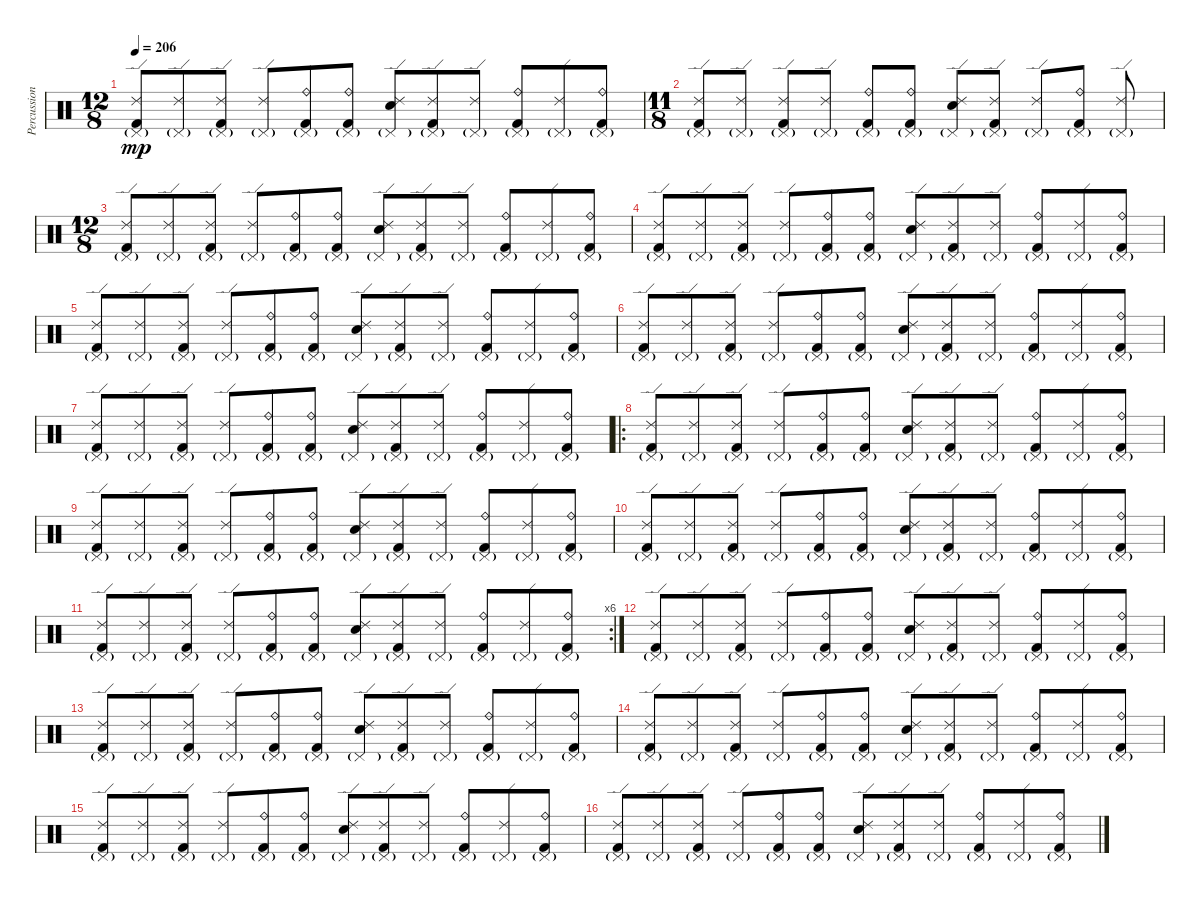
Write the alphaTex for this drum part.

\track ("Percussion" "Percussion") {instrument percussion}
\staff {score}
\articulation defaults
\ts (12 8)
\tempo 206
\clef neutral
\ks c
("Ride (edge) 2" "Pedal Hi-Hat (hit)"{g} "Kick (hit) 2").8{dy mp} ("Ride (edge) 2" "Pedal Hi-Hat (hit)"{g}).8 ("Ride (edge) 2" "Pedal Hi-Hat (hit)"{g} "Kick (hit) 2").8 ("Ride (edge) 2" "Pedal Hi-Hat (hit)"{g}).8 ("Ride (bell)" "Pedal Hi-Hat (hit)"{g} "Kick (hit) 2").8 ("Ride (bell)" "Pedal Hi-Hat (hit)"{g} "Kick (hit) 2").8 ("Ride (edge) 2" "Pedal Hi-Hat (hit)"{g} "Electric Snare (hit)").8 ("Ride (edge) 2" "Pedal Hi-Hat (hit)"{g} "Kick (hit) 2").8 ("Ride (edge) 2" "Pedal Hi-Hat (hit)"{g}).8 ("Ride (bell)" "Pedal Hi-Hat (hit)"{g} "Kick (hit) 2").8 ("Ride (edge) 2" "Pedal Hi-Hat (hit)"{g}).8 ("Ride (bell)" "Pedal Hi-Hat (hit)"{g} "Kick (hit) 2").8 |
\ts (11 8)
("Ride (edge) 2" "Pedal Hi-Hat (hit)"{g} "Kick (hit) 2").8 ("Ride (edge) 2" "Pedal Hi-Hat (hit)"{g}).8 ("Ride (edge) 2" "Pedal Hi-Hat (hit)"{g} "Kick (hit) 2").8 ("Ride (edge) 2" "Pedal Hi-Hat (hit)"{g}).8 ("Ride (bell)" "Pedal Hi-Hat (hit)"{g} "Kick (hit) 2").8 ("Ride (bell)" "Pedal Hi-Hat (hit)"{g} "Kick (hit) 2").8 ("Ride (edge) 2" "Pedal Hi-Hat (hit)"{g} "Electric Snare (hit)").8 ("Ride (edge) 2" "Pedal Hi-Hat (hit)"{g} "Kick (hit) 2").8 ("Ride (edge) 2" "Pedal Hi-Hat (hit)"{g}).8 ("Ride (bell)" "Pedal Hi-Hat (hit)"{g} "Kick (hit) 2").8 ("Ride (edge) 2" "Pedal Hi-Hat (hit)"{g}).8 |
\ts (12 8)
("Ride (edge) 2" "Pedal Hi-Hat (hit)"{g} "Kick (hit) 2").8 ("Ride (edge) 2" "Pedal Hi-Hat (hit)"{g}).8 ("Ride (edge) 2" "Pedal Hi-Hat (hit)"{g} "Kick (hit) 2").8 ("Ride (edge) 2" "Pedal Hi-Hat (hit)"{g}).8 ("Ride (bell)" "Pedal Hi-Hat (hit)"{g} "Kick (hit) 2").8 ("Ride (bell)" "Pedal Hi-Hat (hit)"{g} "Kick (hit) 2").8 ("Ride (edge) 2" "Pedal Hi-Hat (hit)"{g} "Electric Snare (hit)").8 ("Ride (edge) 2" "Pedal Hi-Hat (hit)"{g} "Kick (hit) 2").8 ("Ride (edge) 2" "Pedal Hi-Hat (hit)"{g}).8 ("Ride (bell)" "Pedal Hi-Hat (hit)"{g} "Kick (hit) 2").8 ("Ride (edge) 2" "Pedal Hi-Hat (hit)"{g}).8 ("Ride (bell)" "Pedal Hi-Hat (hit)"{g} "Kick (hit) 2").8 |
("Ride (edge) 2" "Pedal Hi-Hat (hit)"{g} "Kick (hit) 2").8 ("Ride (edge) 2" "Pedal Hi-Hat (hit)"{g}).8 ("Ride (edge) 2" "Pedal Hi-Hat (hit)"{g} "Kick (hit) 2").8 ("Ride (edge) 2" "Pedal Hi-Hat (hit)"{g}).8 ("Ride (bell)" "Pedal Hi-Hat (hit)"{g} "Kick (hit) 2").8 ("Ride (bell)" "Pedal Hi-Hat (hit)"{g} "Kick (hit) 2").8 ("Ride (edge) 2" "Pedal Hi-Hat (hit)"{g} "Electric Snare (hit)").8 ("Ride (edge) 2" "Pedal Hi-Hat (hit)"{g} "Kick (hit) 2").8 ("Ride (edge) 2" "Pedal Hi-Hat (hit)"{g}).8 ("Ride (bell)" "Pedal Hi-Hat (hit)"{g} "Kick (hit) 2").8 ("Ride (edge) 2" "Pedal Hi-Hat (hit)"{g}).8 ("Ride (bell)" "Pedal Hi-Hat (hit)"{g} "Kick (hit) 2").8 |
("Ride (edge) 2" "Pedal Hi-Hat (hit)"{g} "Kick (hit) 2").8 ("Ride (edge) 2" "Pedal Hi-Hat (hit)"{g}).8 ("Ride (edge) 2" "Pedal Hi-Hat (hit)"{g} "Kick (hit) 2").8 ("Ride (edge) 2" "Pedal Hi-Hat (hit)"{g}).8 ("Ride (bell)" "Pedal Hi-Hat (hit)"{g} "Kick (hit) 2").8 ("Ride (bell)" "Pedal Hi-Hat (hit)"{g} "Kick (hit) 2").8 ("Ride (edge) 2" "Pedal Hi-Hat (hit)"{g} "Electric Snare (hit)").8 ("Ride (edge) 2" "Pedal Hi-Hat (hit)"{g} "Kick (hit) 2").8 ("Ride (edge) 2" "Pedal Hi-Hat (hit)"{g}).8 ("Ride (bell)" "Pedal Hi-Hat (hit)"{g} "Kick (hit) 2").8 ("Ride (edge) 2" "Pedal Hi-Hat (hit)"{g}).8 ("Ride (bell)" "Pedal Hi-Hat (hit)"{g} "Kick (hit) 2").8 |
("Ride (edge) 2" "Pedal Hi-Hat (hit)"{g} "Kick (hit) 2").8 ("Ride (edge) 2" "Pedal Hi-Hat (hit)"{g}).8 ("Ride (edge) 2" "Pedal Hi-Hat (hit)"{g} "Kick (hit) 2").8 ("Ride (edge) 2" "Pedal Hi-Hat (hit)"{g}).8 ("Ride (bell)" "Pedal Hi-Hat (hit)"{g} "Kick (hit) 2").8 ("Ride (bell)" "Pedal Hi-Hat (hit)"{g} "Kick (hit) 2").8 ("Ride (edge) 2" "Pedal Hi-Hat (hit)"{g} "Electric Snare (hit)").8 ("Ride (edge) 2" "Pedal Hi-Hat (hit)"{g} "Kick (hit) 2").8 ("Ride (edge) 2" "Pedal Hi-Hat (hit)"{g}).8 ("Ride (bell)" "Pedal Hi-Hat (hit)"{g} "Kick (hit) 2").8 ("Ride (edge) 2" "Pedal Hi-Hat (hit)"{g}).8 ("Ride (bell)" "Pedal Hi-Hat (hit)"{g} "Kick (hit) 2").8 |
("Ride (edge) 2" "Pedal Hi-Hat (hit)"{g} "Kick (hit) 2").8 ("Ride (edge) 2" "Pedal Hi-Hat (hit)"{g}).8 ("Ride (edge) 2" "Pedal Hi-Hat (hit)"{g} "Kick (hit) 2").8 ("Ride (edge) 2" "Pedal Hi-Hat (hit)"{g}).8 ("Ride (bell)" "Pedal Hi-Hat (hit)"{g} "Kick (hit) 2").8 ("Ride (bell)" "Pedal Hi-Hat (hit)"{g} "Kick (hit) 2").8 ("Ride (edge) 2" "Pedal Hi-Hat (hit)"{g} "Electric Snare (hit)").8 ("Ride (edge) 2" "Pedal Hi-Hat (hit)"{g} "Kick (hit) 2").8 ("Ride (edge) 2" "Pedal Hi-Hat (hit)"{g}).8 ("Ride (bell)" "Pedal Hi-Hat (hit)"{g} "Kick (hit) 2").8 ("Ride (edge) 2" "Pedal Hi-Hat (hit)"{g}).8 ("Ride (bell)" "Pedal Hi-Hat (hit)"{g} "Kick (hit) 2").8 |
\ro
("Ride (edge) 2" "Pedal Hi-Hat (hit)"{g} "Kick (hit) 2").8 ("Ride (edge) 2" "Pedal Hi-Hat (hit)"{g}).8 ("Ride (edge) 2" "Pedal Hi-Hat (hit)"{g} "Kick (hit) 2").8 ("Ride (edge) 2" "Pedal Hi-Hat (hit)"{g}).8 ("Ride (bell)" "Pedal Hi-Hat (hit)"{g} "Kick (hit) 2").8 ("Ride (bell)" "Pedal Hi-Hat (hit)"{g} "Kick (hit) 2").8 ("Ride (edge) 2" "Pedal Hi-Hat (hit)"{g} "Electric Snare (hit)").8 ("Ride (edge) 2" "Pedal Hi-Hat (hit)"{g} "Kick (hit) 2").8 ("Ride (edge) 2" "Pedal Hi-Hat (hit)"{g}).8 ("Ride (bell)" "Pedal Hi-Hat (hit)"{g} "Kick (hit) 2").8 ("Ride (edge) 2" "Pedal Hi-Hat (hit)"{g}).8 ("Ride (bell)" "Pedal Hi-Hat (hit)"{g} "Kick (hit) 2").8 |
("Ride (edge) 2" "Pedal Hi-Hat (hit)"{g} "Kick (hit) 2").8 ("Ride (edge) 2" "Pedal Hi-Hat (hit)"{g}).8 ("Ride (edge) 2" "Pedal Hi-Hat (hit)"{g} "Kick (hit) 2").8 ("Ride (edge) 2" "Pedal Hi-Hat (hit)"{g}).8 ("Ride (bell)" "Pedal Hi-Hat (hit)"{g} "Kick (hit) 2").8 ("Ride (bell)" "Pedal Hi-Hat (hit)"{g} "Kick (hit) 2").8 ("Ride (edge) 2" "Pedal Hi-Hat (hit)"{g} "Electric Snare (hit)").8 ("Ride (edge) 2" "Pedal Hi-Hat (hit)"{g} "Kick (hit) 2").8 ("Ride (edge) 2" "Pedal Hi-Hat (hit)"{g}).8 ("Ride (bell)" "Pedal Hi-Hat (hit)"{g} "Kick (hit) 2").8 ("Ride (edge) 2" "Pedal Hi-Hat (hit)"{g}).8 ("Ride (bell)" "Pedal Hi-Hat (hit)"{g} "Kick (hit) 2").8 |
("Ride (edge) 2" "Pedal Hi-Hat (hit)"{g} "Kick (hit) 2").8 ("Ride (edge) 2" "Pedal Hi-Hat (hit)"{g}).8 ("Ride (edge) 2" "Pedal Hi-Hat (hit)"{g} "Kick (hit) 2").8 ("Ride (edge) 2" "Pedal Hi-Hat (hit)"{g}).8 ("Ride (bell)" "Pedal Hi-Hat (hit)"{g} "Kick (hit) 2").8 ("Ride (bell)" "Pedal Hi-Hat (hit)"{g} "Kick (hit) 2").8 ("Ride (edge) 2" "Pedal Hi-Hat (hit)"{g} "Electric Snare (hit)").8 ("Ride (edge) 2" "Pedal Hi-Hat (hit)"{g} "Kick (hit) 2").8 ("Ride (edge) 2" "Pedal Hi-Hat (hit)"{g}).8 ("Ride (bell)" "Pedal Hi-Hat (hit)"{g} "Kick (hit) 2").8 ("Ride (edge) 2" "Pedal Hi-Hat (hit)"{g}).8 ("Ride (bell)" "Pedal Hi-Hat (hit)"{g} "Kick (hit) 2").8 |
\rc 6
("Ride (edge) 2" "Pedal Hi-Hat (hit)"{g} "Kick (hit) 2").8 ("Ride (edge) 2" "Pedal Hi-Hat (hit)"{g}).8 ("Ride (edge) 2" "Pedal Hi-Hat (hit)"{g} "Kick (hit) 2").8 ("Ride (edge) 2" "Pedal Hi-Hat (hit)"{g}).8 ("Ride (bell)" "Pedal Hi-Hat (hit)"{g} "Kick (hit) 2").8 ("Ride (bell)" "Pedal Hi-Hat (hit)"{g} "Kick (hit) 2").8 ("Ride (edge) 2" "Pedal Hi-Hat (hit)"{g} "Electric Snare (hit)").8 ("Ride (edge) 2" "Pedal Hi-Hat (hit)"{g} "Kick (hit) 2").8 ("Ride (edge) 2" "Pedal Hi-Hat (hit)"{g}).8 ("Ride (bell)" "Pedal Hi-Hat (hit)"{g} "Kick (hit) 2").8 ("Ride (edge) 2" "Pedal Hi-Hat (hit)"{g}).8 ("Ride (bell)" "Pedal Hi-Hat (hit)"{g} "Kick (hit) 2").8 |
("Ride (edge) 2" "Pedal Hi-Hat (hit)"{g} "Kick (hit) 2").8 ("Ride (edge) 2" "Pedal Hi-Hat (hit)"{g}).8 ("Ride (edge) 2" "Pedal Hi-Hat (hit)"{g} "Kick (hit) 2").8 ("Ride (edge) 2" "Pedal Hi-Hat (hit)"{g}).8 ("Ride (bell)" "Pedal Hi-Hat (hit)"{g} "Kick (hit) 2").8 ("Ride (bell)" "Pedal Hi-Hat (hit)"{g} "Kick (hit) 2").8 ("Ride (edge) 2" "Pedal Hi-Hat (hit)"{g} "Electric Snare (hit)").8 ("Ride (edge) 2" "Pedal Hi-Hat (hit)"{g} "Kick (hit) 2").8 ("Ride (edge) 2" "Pedal Hi-Hat (hit)"{g}).8 ("Ride (bell)" "Pedal Hi-Hat (hit)"{g} "Kick (hit) 2").8 ("Ride (edge) 2" "Pedal Hi-Hat (hit)"{g}).8 ("Ride (bell)" "Pedal Hi-Hat (hit)"{g} "Kick (hit) 2").8 |
("Ride (edge) 2" "Pedal Hi-Hat (hit)"{g} "Kick (hit) 2").8 ("Ride (edge) 2" "Pedal Hi-Hat (hit)"{g}).8 ("Ride (edge) 2" "Pedal Hi-Hat (hit)"{g} "Kick (hit) 2").8 ("Ride (edge) 2" "Pedal Hi-Hat (hit)"{g}).8 ("Ride (bell)" "Pedal Hi-Hat (hit)"{g} "Kick (hit) 2").8 ("Ride (bell)" "Pedal Hi-Hat (hit)"{g} "Kick (hit) 2").8 ("Ride (edge) 2" "Pedal Hi-Hat (hit)"{g} "Electric Snare (hit)").8 ("Ride (edge) 2" "Pedal Hi-Hat (hit)"{g} "Kick (hit) 2").8 ("Ride (edge) 2" "Pedal Hi-Hat (hit)"{g}).8 ("Ride (bell)" "Pedal Hi-Hat (hit)"{g} "Kick (hit) 2").8 ("Ride (edge) 2" "Pedal Hi-Hat (hit)"{g}).8 ("Ride (bell)" "Pedal Hi-Hat (hit)"{g} "Kick (hit) 2").8 |
("Ride (edge) 2" "Pedal Hi-Hat (hit)"{g} "Kick (hit) 2").8 ("Ride (edge) 2" "Pedal Hi-Hat (hit)"{g}).8 ("Ride (edge) 2" "Pedal Hi-Hat (hit)"{g} "Kick (hit) 2").8 ("Ride (edge) 2" "Pedal Hi-Hat (hit)"{g}).8 ("Ride (bell)" "Pedal Hi-Hat (hit)"{g} "Kick (hit) 2").8 ("Ride (bell)" "Pedal Hi-Hat (hit)"{g} "Kick (hit) 2").8 ("Ride (edge) 2" "Pedal Hi-Hat (hit)"{g} "Electric Snare (hit)").8 ("Ride (edge) 2" "Pedal Hi-Hat (hit)"{g} "Kick (hit) 2").8 ("Ride (edge) 2" "Pedal Hi-Hat (hit)"{g}).8 ("Ride (bell)" "Pedal Hi-Hat (hit)"{g} "Kick (hit) 2").8 ("Ride (edge) 2" "Pedal Hi-Hat (hit)"{g}).8 ("Ride (bell)" "Pedal Hi-Hat (hit)"{g} "Kick (hit) 2").8 |
("Ride (edge) 2" "Pedal Hi-Hat (hit)"{g} "Kick (hit) 2").8 ("Ride (edge) 2" "Pedal Hi-Hat (hit)"{g}).8 ("Ride (edge) 2" "Pedal Hi-Hat (hit)"{g} "Kick (hit) 2").8 ("Ride (edge) 2" "Pedal Hi-Hat (hit)"{g}).8 ("Ride (bell)" "Pedal Hi-Hat (hit)"{g} "Kick (hit) 2").8 ("Ride (bell)" "Pedal Hi-Hat (hit)"{g} "Kick (hit) 2").8 ("Ride (edge) 2" "Pedal Hi-Hat (hit)"{g} "Electric Snare (hit)").8 ("Ride (edge) 2" "Pedal Hi-Hat (hit)"{g} "Kick (hit) 2").8 ("Ride (edge) 2" "Pedal Hi-Hat (hit)"{g}).8 ("Ride (bell)" "Pedal Hi-Hat (hit)"{g} "Kick (hit) 2").8 ("Ride (edge) 2" "Pedal Hi-Hat (hit)"{g}).8 ("Ride (bell)" "Pedal Hi-Hat (hit)"{g} "Kick (hit) 2").8 |
("Ride (edge) 2" "Pedal Hi-Hat (hit)"{g} "Kick (hit) 2").8 ("Ride (edge) 2" "Pedal Hi-Hat (hit)"{g}).8 ("Ride (edge) 2" "Pedal Hi-Hat (hit)"{g} "Kick (hit) 2").8 ("Ride (edge) 2" "Pedal Hi-Hat (hit)"{g}).8 ("Ride (bell)" "Pedal Hi-Hat (hit)"{g} "Kick (hit) 2").8 ("Ride (bell)" "Pedal Hi-Hat (hit)"{g} "Kick (hit) 2").8 ("Ride (edge) 2" "Pedal Hi-Hat (hit)"{g} "Electric Snare (hit)").8 ("Ride (edge) 2" "Pedal Hi-Hat (hit)"{g} "Kick (hit) 2").8 ("Ride (edge) 2" "Pedal Hi-Hat (hit)"{g}).8 ("Ride (bell)" "Pedal Hi-Hat (hit)"{g} "Kick (hit) 2").8 ("Ride (edge) 2" "Pedal Hi-Hat (hit)"{g}).8 ("Ride (bell)" "Pedal Hi-Hat (hit)"{g} "Kick (hit) 2").8
